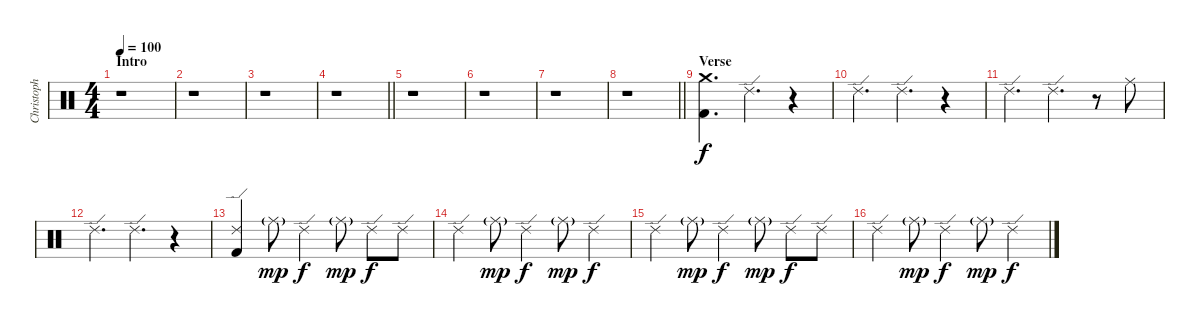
\track ("Christoph Schneider" "Christoph ") {instrument percussion}
\staff {score}
\articulation defaults
\ts (4 4)
\section ("" "Intro")
\tempo 100
\clef neutral
\ks c
r.1{dy f} |
r.1 |
r.1 |
\barLineRight lightlight
r.1 |
r.1 |
r.1 |
r.1 |
\barLineRight lightlight
r.1 |
\section ("" "Verse")
("Crash medium (hit)" "Kick (hit) 2").4{d} "Ride (edge) 2".4{d} r.4 |
"Ride (edge) 2".4{d} "Ride (edge) 2".4{d} r.4 |
"Ride (edge) 2".4{d} "Ride (edge) 2".4{d} r.8 "Ride (middle)".8 |
"Ride (edge) 2".4{d} "Ride (edge) 2".4{d} r.4 |
("Ride (edge) 2" "Kick (hit) 2").4 "Ride (middle)"{g}.8{dy mp} "Ride (edge) 2".4{dy f} "Ride (middle)"{g}.8{dy mp} "Ride (edge) 2".8{dy f} "Ride (edge) 2".8 |
"Ride (edge) 2".4 "Ride (middle)"{g}.8{dy mp} "Ride (edge) 2".4{dy f} "Ride (middle)"{g}.8{dy mp} "Ride (edge) 2".4{dy f} |
"Ride (edge) 2".4 "Ride (middle)"{g}.8{dy mp} "Ride (edge) 2".4{dy f} "Ride (middle)"{g}.8{dy mp} "Ride (edge) 2".8{dy f} "Ride (edge) 2".8 |
"Ride (edge) 2".4 "Ride (middle)"{g}.8{dy mp} "Ride (edge) 2".4{dy f} "Ride (middle)"{g}.8{dy mp} "Ride (edge) 2".4{dy f}
